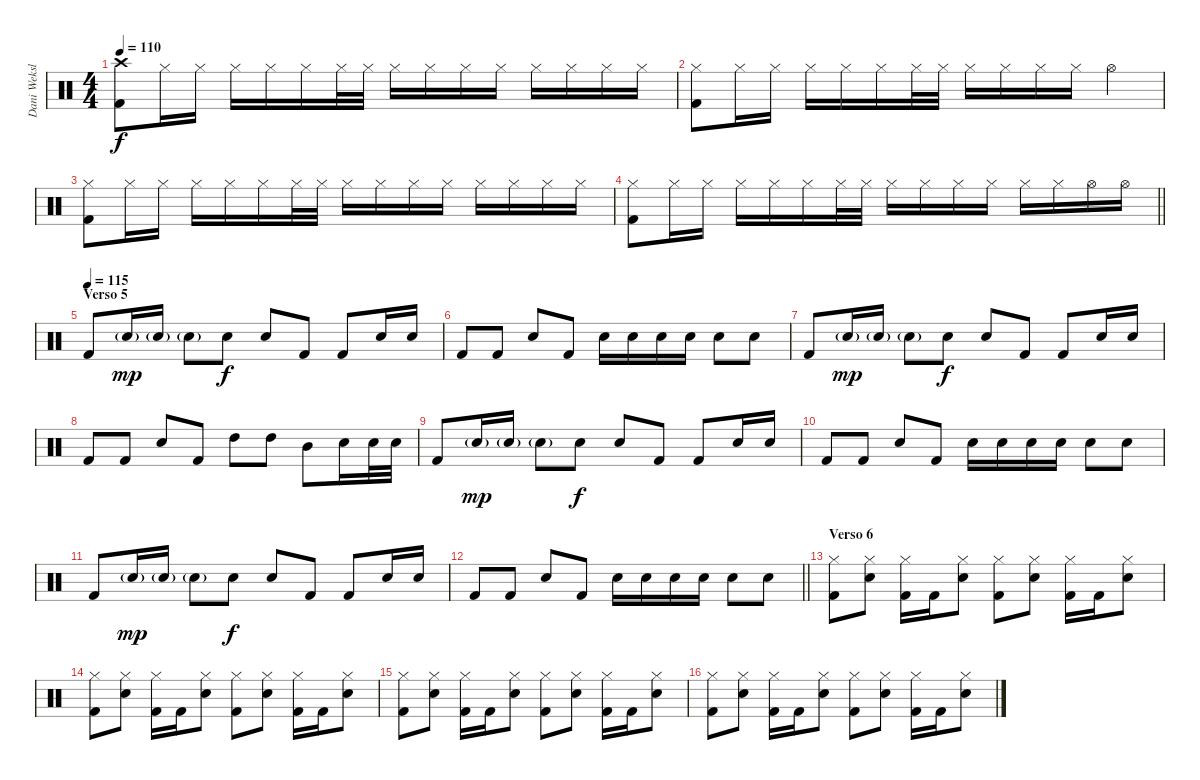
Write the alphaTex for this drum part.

\track ("Dani Weksler" "Dani Weksl") {instrument percussion}
\staff {score}
\articulation defaults
\ts (4 4)
\tempo 110
\clef neutral
\ks c
("Crash high (hit)" "Kick (hit) 2").8{dy f} "Hi-Hat (closed)".16 "Hi-Hat (closed)".16 "Hi-Hat (closed)".16 "Hi-Hat (closed)".16 "Hi-Hat (closed)".16 "Hi-Hat (closed)".32 "Hi-Hat (closed)".32 "Hi-Hat (closed)".16 "Hi-Hat (closed)".16 "Hi-Hat (closed)".16 "Hi-Hat (closed)".16 "Hi-Hat (closed)".16 "Hi-Hat (closed)".16 "Hi-Hat (closed)".16 "Hi-Hat (closed)".16 |
("Hi-Hat (closed)" "Kick (hit) 2").8 "Hi-Hat (closed)".16 "Hi-Hat (closed)".16 "Hi-Hat (closed)".16 "Hi-Hat (closed)".16 "Hi-Hat (closed)".16 "Hi-Hat (closed)".32 "Hi-Hat (closed)".32 "Hi-Hat (closed)".16 "Hi-Hat (closed)".16 "Hi-Hat (closed)".16 "Hi-Hat (closed)".16 "Hi-Hat (open)".4 |
("Hi-Hat (closed)" "Kick (hit) 2").8 "Hi-Hat (closed)".16 "Hi-Hat (closed)".16 "Hi-Hat (closed)".16 "Hi-Hat (closed)".16 "Hi-Hat (closed)".16 "Hi-Hat (closed)".32 "Hi-Hat (closed)".32 "Hi-Hat (closed)".16 "Hi-Hat (closed)".16 "Hi-Hat (closed)".16 "Hi-Hat (closed)".16 "Hi-Hat (closed)".16 "Hi-Hat (closed)".16 "Hi-Hat (closed)".16 "Hi-Hat (closed)".16 |
\barLineRight lightlight
("Hi-Hat (closed)" "Kick (hit) 2").8 "Hi-Hat (closed)".16 "Hi-Hat (closed)".16 "Hi-Hat (closed)".16 "Hi-Hat (closed)".16 "Hi-Hat (closed)".16 "Hi-Hat (closed)".32 "Hi-Hat (closed)".32 "Hi-Hat (closed)".16 "Hi-Hat (closed)".16 "Hi-Hat (closed)".16 "Hi-Hat (closed)".16 "Hi-Hat (closed)".16 "Hi-Hat (closed)".16 "Hi-Hat (open)".16 "Hi-Hat (open)".16 |
\section ("" "Verso 5")
\tempo (115)
"Kick (hit) 2".8 "Electric Snare (hit)"{g}.16{dy mp} "Electric Snare (hit)"{g}.16 "Electric Snare (hit)"{g}.8 "Electric Snare (hit)".8{dy f} "Electric Snare (hit)".8 "Kick (hit) 2".8 "Kick (hit) 2".8 "Electric Snare (hit)".16 "Electric Snare (hit)".16 |
"Kick (hit) 2".8 "Kick (hit) 2".8 "Electric Snare (hit)".8 "Kick (hit) 2".8 "Electric Snare (hit)".16 "Electric Snare (hit)".16 "Electric Snare (hit)".16 "Electric Snare (hit)".16 "Electric Snare (hit)".8 "Electric Snare (hit)".8 |
"Kick (hit) 2".8 "Electric Snare (hit)"{g}.16{dy mp} "Electric Snare (hit)"{g}.16 "Electric Snare (hit)"{g}.8 "Electric Snare (hit)".8{dy f} "Electric Snare (hit)".8 "Kick (hit) 2".8 "Kick (hit) 2".8 "Electric Snare (hit)".16 "Electric Snare (hit)".16 |
"Kick (hit) 2".8 "Kick (hit) 2".8 "Electric Snare (hit)".8 "Kick (hit) 2".8 "High Tom (hit)".8 "High Tom (hit)".8 "Mid Tom (hit)".8 "Electric Snare (hit)".16 "Electric Snare (hit)".32 "Electric Snare (hit)".32 |
"Kick (hit) 2".8 "Electric Snare (hit)"{g}.16{dy mp} "Electric Snare (hit)"{g}.16 "Electric Snare (hit)"{g}.8 "Electric Snare (hit)".8{dy f} "Electric Snare (hit)".8 "Kick (hit) 2".8 "Kick (hit) 2".8 "Electric Snare (hit)".16 "Electric Snare (hit)".16 |
"Kick (hit) 2".8 "Kick (hit) 2".8 "Electric Snare (hit)".8 "Kick (hit) 2".8 "Electric Snare (hit)".16 "Electric Snare (hit)".16 "Electric Snare (hit)".16 "Electric Snare (hit)".16 "Electric Snare (hit)".8 "Electric Snare (hit)".8 |
"Kick (hit) 2".8 "Electric Snare (hit)"{g}.16{dy mp} "Electric Snare (hit)"{g}.16 "Electric Snare (hit)"{g}.8 "Electric Snare (hit)".8{dy f} "Electric Snare (hit)".8 "Kick (hit) 2".8 "Kick (hit) 2".8 "Electric Snare (hit)".16 "Electric Snare (hit)".16 |
\barLineRight lightlight "Kick (hit) 2".8 "Kick (hit) 2".8 "Electric Snare (hit)".8 "Kick (hit) 2".8 "Electric Snare (hit)".16 "Electric Snare (hit)".16 "Electric Snare (hit)".16 "Electric Snare (hit)".16 "Electric Snare (hit)".8 "Electric Snare (hit)".8
|
\section ("" "Verso 6")
("Hi-Hat (closed)" "Kick (hit) 2").8 ("Hi-Hat (closed)" "Electric Snare (hit)").8 ("Hi-Hat (closed)" "Kick (hit) 2").16 "Kick (hit) 2".16 ("Hi-Hat (closed)" "Electric Snare (hit)").8 ("Hi-Hat (closed)" "Kick (hit) 2").8 ("Hi-Hat (closed)" "Electric Snare (hit)").8 ("Hi-Hat (closed)" "Kick (hit) 2").16 "Kick (hit) 2".16 ("Hi-Hat (closed)" "Electric Snare (hit)").8 |
("Hi-Hat (closed)" "Kick (hit) 2").8 ("Hi-Hat (closed)" "Electric Snare (hit)").8 ("Hi-Hat (closed)" "Kick (hit) 2").16 "Kick (hit) 2".16 ("Hi-Hat (closed)" "Electric Snare (hit)").8 ("Hi-Hat (closed)" "Kick (hit) 2").8 ("Hi-Hat (closed)" "Electric Snare (hit)").8 ("Hi-Hat (closed)" "Kick (hit) 2").16 "Kick (hit) 2".16 ("Hi-Hat (closed)" "Electric Snare (hit)").8 |
("Hi-Hat (closed)" "Kick (hit) 2").8 ("Hi-Hat (closed)" "Electric Snare (hit)").8 ("Hi-Hat (closed)" "Kick (hit) 2").16 "Kick (hit) 2".16 ("Hi-Hat (closed)" "Electric Snare (hit)").8 ("Hi-Hat (closed)" "Kick (hit) 2").8 ("Hi-Hat (closed)" "Electric Snare (hit)").8 ("Hi-Hat (closed)" "Kick (hit) 2").16 "Kick (hit) 2".16 ("Hi-Hat (closed)" "Electric Snare (hit)").8 |
("Hi-Hat (closed)" "Kick (hit) 2").8 ("Hi-Hat (closed)" "Electric Snare (hit)").8 ("Hi-Hat (closed)" "Kick (hit) 2").16 "Kick (hit) 2".16 ("Hi-Hat (closed)" "Electric Snare (hit)").8 ("Hi-Hat (closed)" "Kick (hit) 2").8 ("Hi-Hat (closed)" "Electric Snare (hit)").8 ("Hi-Hat (closed)" "Kick (hit) 2").16 "Kick (hit) 2".16 ("Hi-Hat (closed)" "Electric Snare (hit)").8
